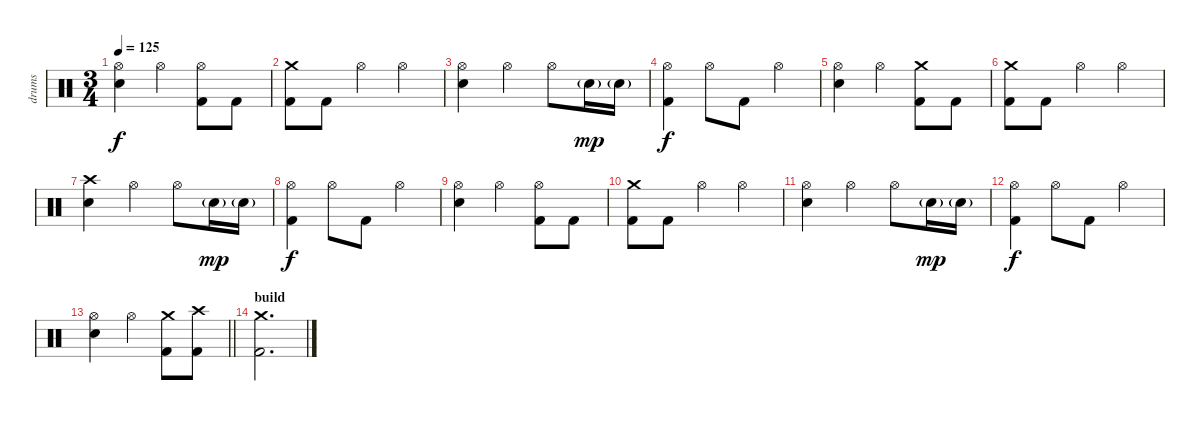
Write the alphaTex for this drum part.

\track ("drums" "drums") {instrument percussion}
\staff {score}
\articulation defaults
\ts (3 4)
\tempo 125
\clef neutral
\ks c
("Hi-Hat (open)" "Electric Snare (hit)").4{dy f} "Hi-Hat (open)".4 ("Hi-Hat (open)" "Kick (hit) 2").8 "Kick (hit) 2".8 |
("Crash medium (hit)" "Kick (hit) 2").8 "Kick (hit) 2".8 "Hi-Hat (open)".4 "Hi-Hat (open)".4 |
("Hi-Hat (open)" "Electric Snare (hit)").4 "Hi-Hat (open)".4 "Hi-Hat (open)".8 "Electric Snare (hit)"{g}.16{dy mp} "Electric Snare (hit)"{g}.16 |
("Hi-Hat (open)" "Kick (hit) 2").4{dy f} "Hi-Hat (open)".8 "Kick (hit) 2".8 "Hi-Hat (open)".4 |
("Hi-Hat (open)" "Electric Snare (hit)").4 "Hi-Hat (open)".4 ("Crash medium (hit)" "Kick (hit) 2").8 "Kick (hit) 2".8 |
("Crash medium (hit)" "Kick (hit) 2").8 "Kick (hit) 2".8 "Hi-Hat (open)".4 "Hi-Hat (open)".4 |
("Crash high (hit)" "Electric Snare (hit)").4 "Hi-Hat (open)".4 "Hi-Hat (open)".8 "Electric Snare (hit)"{g}.16{dy mp} "Electric Snare (hit)"{g}.16 |
("Hi-Hat (open)" "Kick (hit) 2").4{dy f} "Hi-Hat (open)".8 "Kick (hit) 2".8 "Hi-Hat (open)".4 |
("Hi-Hat (open)" "Electric Snare (hit)").4 "Hi-Hat (open)".4 ("Hi-Hat (open)" "Kick (hit) 2").8 "Kick (hit) 2".8 |
("Crash medium (hit)" "Kick (hit) 2").8 "Kick (hit) 2".8 "Hi-Hat (open)".4 "Hi-Hat (open)".4 |
("Hi-Hat (open)" "Electric Snare (hit)").4 "Hi-Hat (open)".4 "Hi-Hat (open)".8 "Electric Snare (hit)"{g}.16{dy mp} "Electric Snare (hit)"{g}.16 |
("Hi-Hat (open)" "Kick (hit) 2").4{dy f} "Hi-Hat (open)".8 "Kick (hit) 2".8 "Hi-Hat (open)".4 |
\barLineRight lightlight
("Hi-Hat (open)" "Electric Snare (hit)").4 "Hi-Hat (open)".4 ("Crash medium (hit)" "Kick (hit) 2").8 ("Crash high (hit)" "Kick (hit) 2").8 |
\section ("" "build")
("Crash medium (hit)" "Kick (hit) 2").2{d}
